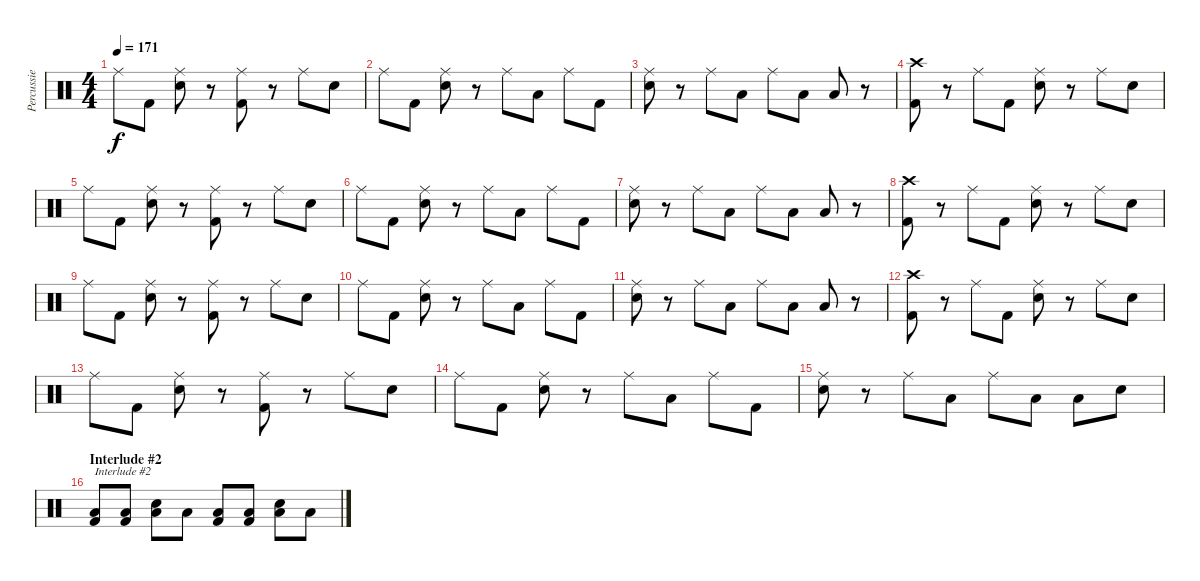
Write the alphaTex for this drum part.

\track ("Percussie" "Percussie") {instrument percussion}
\staff {score}
\articulation defaults
\ts (4 4)
\tempo 171
\clef neutral
\ks c "Ride (middle)".8{dy f} "Kick (hit) 2".8
("Ride (middle)" "Snare (hit) 2").8 r.8 ("Ride (middle)" "Kick (hit) 2").8 r.8 "Ride (middle)".8 "Snare (hit) 2".8 |
"Ride (middle)".8 "Kick (hit) 2".8 ("Ride (middle)" "Snare (hit) 2").8 r.8 "Ride (middle)".8 "Low Floor Tom (hit)".8 "Ride (middle)".8 "Kick (hit) 2".8 |
("Ride (middle)" "Snare (hit) 2").8 r.8 "Ride (middle)".8 "Low Tom (hit)".8 "Ride (middle)".8 "Low Floor Tom (hit)".8 "Low Floor Tom (hit)".8 r.8 |
("Crash high (hit)" "Kick (hit) 2").8 r.8 "Ride (middle)".8 "Kick (hit) 2".8 ("Ride (middle)" "Snare (hit) 2").8 r.8 "Ride (middle)".8 "Snare (hit) 2".8 |
"Ride (middle)".8 "Kick (hit) 2".8 ("Ride (middle)" "Snare (hit) 2").8 r.8 ("Ride (middle)" "Kick (hit) 2").8 r.8 "Ride (middle)".8 "Snare (hit) 2".8 |
"Ride (middle)".8 "Kick (hit) 2".8 ("Ride (middle)" "Snare (hit) 2").8 r.8 "Ride (middle)".8 "Low Floor Tom (hit)".8 "Ride (middle)".8 "Kick (hit) 2".8 |
("Ride (middle)" "Snare (hit) 2").8 r.8 "Ride (middle)".8 "Low Tom (hit)".8 "Ride (middle)".8 "Low Floor Tom (hit)".8 "Low Floor Tom (hit)".8 r.8 |
("Crash high (hit)" "Kick (hit) 2").8 r.8 "Ride (middle)".8 "Kick (hit) 2".8 ("Ride (middle)" "Snare (hit) 2").8 r.8 "Ride (middle)".8 "Snare (hit) 2".8 |
"Ride (middle)".8 "Kick (hit) 2".8 ("Ride (middle)" "Snare (hit) 2").8 r.8 ("Ride (middle)" "Kick (hit) 2").8 r.8 "Ride (middle)".8 "Snare (hit) 2".8 |
"Ride (middle)".8 "Kick (hit) 2".8 ("Ride (middle)" "Snare (hit) 2").8 r.8 "Ride (middle)".8 "Low Floor Tom (hit)".8 "Ride (middle)".8 "Kick (hit) 2".8 |
("Ride (middle)" "Snare (hit) 2").8 r.8 "Ride (middle)".8 "Low Tom (hit)".8 "Ride (middle)".8 "Low Floor Tom (hit)".8 "Low Floor Tom (hit)".8 r.8 |
("Crash high (hit)" "Kick (hit) 2").8 r.8 "Ride (middle)".8 "Kick (hit) 2".8 ("Ride (middle)" "Snare (hit) 2").8 r.8 "Ride (middle)".8 "Snare (hit) 2".8 |
"Ride (middle)".8 "Kick (hit) 2".8 ("Ride (middle)" "Snare (hit) 2").8 r.8 ("Ride (middle)" "Kick (hit) 2").8 r.8 "Ride (middle)".8 "Snare (hit) 2".8 |
"Ride (middle)".8 "Kick (hit) 2".8 ("Ride (middle)" "Snare (hit) 2").8 r.8 "Ride (middle)".8 "Low Floor Tom (hit)".8 "Ride (middle)".8 "Kick (hit) 2".8 |
("Ride (middle)" "Snare (hit) 2").8 r.8 "Ride (middle)".8 "Low Tom (hit)".8 "Ride (middle)".8 "Low Floor Tom (hit)".8 "Low Floor Tom (hit)".8 "Snare (hit)".8 |
\section ("" "Interlude #2")
("Low Floor Tom (hit)" "Kick (hit) 2").8{txt "Interlude #2"} ("Low Floor Tom (hit)" "Kick (hit) 2").8 ("Snare (hit) 2" "Low Floor Tom (hit)").8 "Low Floor Tom (hit)".8 ("Low Floor Tom (hit)" "Kick (hit) 2").8 ("Low Floor Tom (hit)" "Kick (hit) 2").8 ("Snare (hit) 2" "Low Floor Tom (hit)").8 "Low Floor Tom (hit)".8
